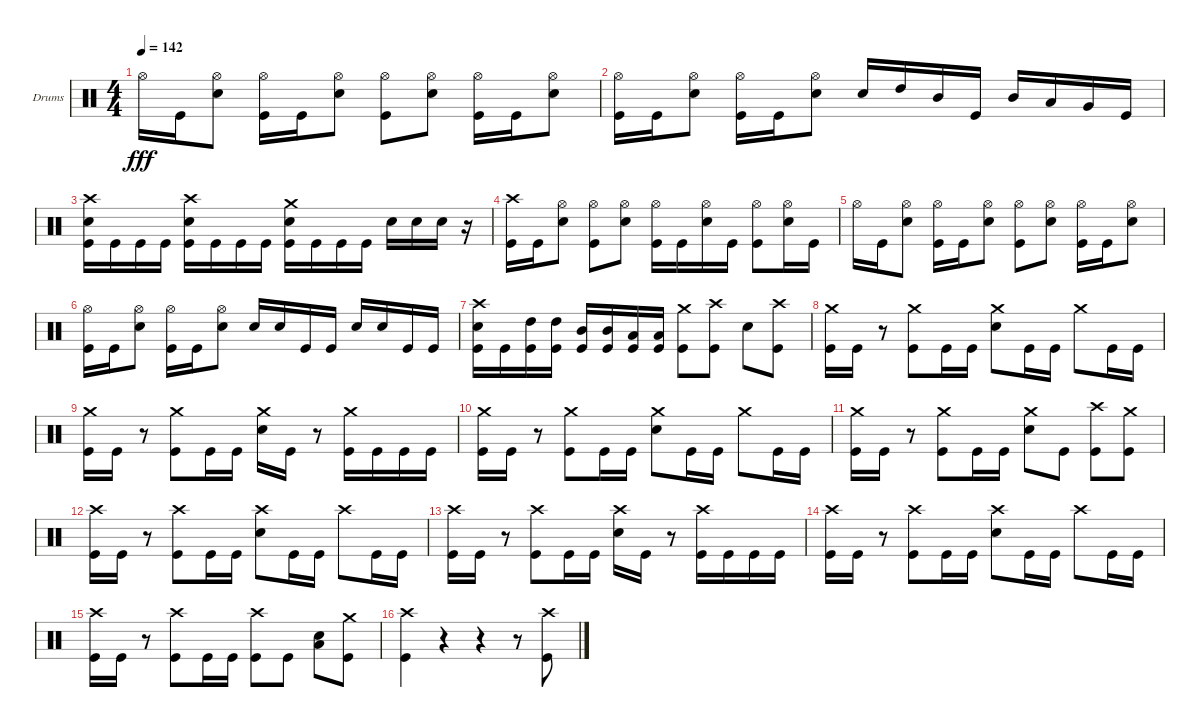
\defaultSystemsLayout 4
\bracketExtendMode groupsimilarinstruments
\firstSystemTrackNameOrientation horizontal
\otherSystemsTrackNameOrientation horizontal
\track ("Drumkit" "Drums") {instrument percussion}
\staff {score}
\articulation defaults
\ts (4 4)
\tempo 142
\clef neutral
\scale
0.333333
\ks c "Hi-Hat (open)".16{dy fff} "Kick (hit)".16
("Hi-Hat (open)" "Snare (hit) 2").8 ("Kick (hit)" "Hi-Hat (open)").16 "Kick (hit)".16 ("Hi-Hat (open)" "Snare (hit) 2").8 ("Hi-Hat (open)" "Kick (hit)").8 ("Hi-Hat (open)" "Snare (hit) 2").8 ("Kick (hit)" "Hi-Hat (open)").16 "Kick (hit)".16 ("Hi-Hat (open)" "Snare (hit) 2").8 |
\scale
0.333333 ("Kick (hit)" "Hi-Hat (open)").16 "Kick (hit)".16 ("Hi-Hat (open)" "Snare (hit) 2").8 ("Kick (hit)" "Hi-Hat (open)").16 "Kick (hit)".16 ("Hi-Hat (open)" "Snare (hit) 2").8 "Snare (hit) 2".16 "High Tom (hit)".16 "Mid Tom (hit)".16 "Kick (hit)".16 "Mid Tom (hit)".16 "Low Tom (hit)".16 "Very Low Tom (hit)".16 "Kick (hit)".16 |
\scale
0.333333 ("Kick (hit)" "Snare (hit) 2" "Crash high (hit)").16 "Kick (hit)".16 "Kick (hit)".16 "Kick (hit)".16 ("Kick (hit)" "Snare (hit) 2" "Crash high (hit)").16 "Kick (hit)".16 "Kick (hit)".16 "Kick (hit)".16 ("Kick (hit)" "Snare (hit) 2" "Crash medium (hit)").16 "Kick (hit)".16 "Kick (hit)".16 "Kick (hit)".16 "Snare (hit) 2".16 "Snare (hit) 2".16 "Snare (hit) 2".16 r.16 |
\scale
0.333333 ("Kick (hit)" "Crash high (hit)").16 "Kick (hit)".16 ("Hi-Hat (open)" "Snare (hit) 2").8 ("Hi-Hat (open)" "Kick (hit)").8 ("Hi-Hat (open)" "Snare (hit) 2").8 ("Kick (hit)" "Hi-Hat (open)").16 "Kick (hit)".16 ("Hi-Hat (open)" "Snare (hit) 2").16 "Kick (hit)".16 ("Hi-Hat (open)" "Kick (hit)").8 ("Snare (hit) 2" "Hi-Hat (open)").16 "Kick (hit)".16 |
\scale
0.333333 "Hi-Hat (open)".16 "Kick (hit)".16 ("Hi-Hat (open)" "Snare (hit) 2").8 ("Kick (hit)" "Hi-Hat (open)").16 "Kick (hit)".16 ("Hi-Hat (open)" "Snare (hit) 2").8 ("Hi-Hat (open)" "Kick (hit)").8 ("Hi-Hat (open)" "Snare (hit) 2").8 ("Kick (hit)" "Hi-Hat (open)").16 "Kick (hit)".16 ("Hi-Hat (open)" "Snare (hit) 2").8 |
\scale
0.333333 ("Kick (hit)" "Hi-Hat (open)").16 "Kick (hit)".16 ("Hi-Hat (open)" "Snare (hit) 2").8 ("Kick (hit)" "Hi-Hat (open)").16 "Kick (hit)".16 ("Hi-Hat (open)" "Snare (hit) 2").8 "Snare (hit) 2".16 "Snare (hit) 2".16 "Kick (hit)".16 "Kick (hit)".16 "Snare (hit) 2".16 "Snare (hit) 2".16 "Kick (hit)".16 "Kick (hit)".16 |
\scale
0.333333 ("Kick (hit)" "Snare (hit) 2" "Crash high (hit)").16 "Kick (hit)".16 ("Kick (hit)" "High Tom (hit)").16 ("Kick (hit)" "High Tom (hit)").16 ("Kick (hit)" "Mid Tom (hit)").16 ("Kick (hit)" "Mid Tom (hit)").16 ("Kick (hit)" "Low Tom (hit)").16 ("Kick (hit)" "Low Tom (hit)").16 ("Kick (hit)" "Crash medium (hit)").8 ("Kick (hit)" "Crash high (hit)").8 "Snare (hit) 2".8 ("Kick (hit)" "Crash high (hit)").8 |
\scale
0.333333 ("Kick (hit)" "Crash medium (hit)").16 "Kick (hit)".16 r.8 ("Crash medium (hit)" "Kick (hit)").8 "Kick (hit)".16 "Kick (hit)".16 ("Snare (hit) 2" "Crash medium (hit)").8 "Kick (hit)".16 "Kick (hit)".16 "Crash medium (hit)".8 "Kick (hit)".16 "Kick (hit)".16 |
\scale
0.333333 ("Kick (hit)" "Crash medium (hit)").16 "Kick (hit)".16 r.8 ("Crash medium (hit)" "Kick (hit)").8 "Kick (hit)".16 "Kick (hit)".16 ("Crash medium (hit)" "Snare (hit) 2").16 "Kick (hit)".16 r.8 ("Kick (hit)" "Crash medium (hit)").16 "Kick (hit)".16 "Kick (hit)".16 "Kick (hit)".16 |
\scale
0.333333 ("Kick (hit)" "Crash medium (hit)").16 "Kick (hit)".16 r.8 ("Crash medium (hit)" "Kick (hit)").8 "Kick (hit)".16 "Kick (hit)".16 ("Snare (hit) 2" "Crash medium (hit)").8 "Kick (hit)".16 "Kick (hit)".16 "Crash medium (hit)".8 "Kick (hit)".16 "Kick (hit)".16 |
\scale
0.333333 ("Kick (hit)" "Crash medium (hit)").16 "Kick (hit)".16 r.8 ("Crash medium (hit)" "Kick (hit)").8 "Kick (hit)".16 "Kick (hit)".16 ("Crash medium (hit)" "Snare (hit) 2").8 "Kick (hit)".8 ("Kick (hit)" "Crash high (hit)").8 ("Kick (hit)" "Crash medium (hit)").8 |
\scale
0.333333 ("Kick (hit)" "Crash high (hit)").16 "Kick (hit)".16 r.8 ("Kick (hit)" "Crash high (hit)").8 "Kick (hit)".16 "Kick (hit)".16 ("Snare (hit) 2" "Crash high (hit)").8 "Kick (hit)".16 "Kick (hit)".16 "Crash high (hit)".8 "Kick (hit)".16 "Kick (hit)".16 |
\scale
0.333333 ("Kick (hit)" "Crash high (hit)").16 "Kick (hit)".16 r.8 ("Kick (hit)" "Crash high (hit)").8 "Kick (hit)".16 "Kick (hit)".16 ("Snare (hit) 2" "Crash high (hit)").16 "Kick (hit)".16 r.8 ("Kick (hit)" "Crash high (hit)").16 "Kick (hit)".16 "Kick (hit)".16 "Kick (hit)".16 |
\scale
0.333333 ("Kick (hit)" "Crash high (hit)").16 "Kick (hit)".16 r.8 ("Kick (hit)" "Crash high (hit)").8 "Kick (hit)".16 "Kick (hit)".16 ("Snare (hit) 2" "Crash high (hit)").8 "Kick (hit)".16 "Kick (hit)".16 "Crash high (hit)".8 "Kick (hit)".16 "Kick (hit)".16 |
\scale
0.333333 ("Kick (hit)" "Crash high (hit)").16 "Kick (hit)".16 r.8 ("Kick (hit)" "Crash high (hit)").8 "Kick (hit)".16 "Kick (hit)".16 ("Crash high (hit)" "Kick (hit)").8 "Kick (hit)".8 ("Snare (hit) 2" "Low Tom (hit)").8 ("Kick (hit)" "Crash medium (hit)").8 |
\scale
0.333333 ("Kick (hit)" "Crash high (hit)").4 r.4 r.4 r.8 ("Kick (hit)" "Crash high (hit)").8
